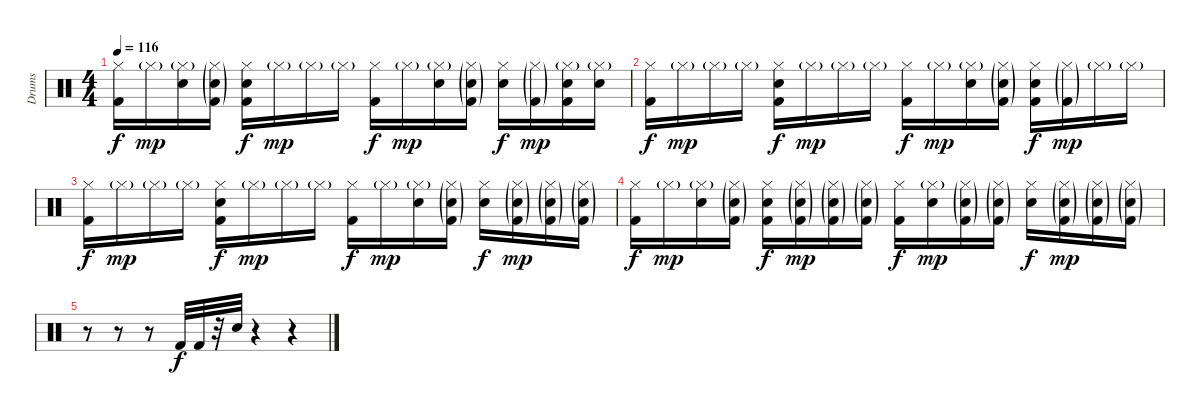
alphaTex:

\track ("Drums" "Drums") {instrument percussion}
\staff {score}
\articulation defaults
\ts (4 4)
\tempo 116
\clef neutral
\ks c
("Hi-Hat (closed)" "Kick (hit) 2").16{dy f} "Hi-Hat (closed)"{g}.16{dy mp} ("Hi-Hat (closed)"{g} "Snare (hit) 2").16 ("Hi-Hat (closed)"{g} "Snare (hit) 2"{g} "Kick (hit) 2"{g}).16 ("Hi-Hat (closed)" "Snare (hit) 2" "Kick (hit) 2").16{dy f} "Hi-Hat (closed)"{g}.16{dy mp} "Hi-Hat (closed)"{g}.16 "Hi-Hat (closed)"{g}.16 ("Hi-Hat (closed)" "Kick (hit) 2").16{dy f} "Hi-Hat (closed)"{g}.16{dy mp} ("Hi-Hat (closed)"{g} "Snare (hit) 2").16 ("Hi-Hat (closed)"{g} "Snare (hit) 2"{g} "Kick (hit) 2"{g}).16 ("Hi-Hat (closed)" "Snare (hit) 2").16{dy f} ("Hi-Hat (closed)"{g} "Kick (hit) 2"{g}).16{dy mp} ("Hi-Hat (closed)"{g} "Snare (hit) 2" "Kick (hit) 2").16 ("Hi-Hat (closed)"{g} "Snare (hit) 2").16 |
("Hi-Hat (closed)" "Kick (hit) 2").16{dy f} "Hi-Hat (closed)"{g}.16{dy mp} "Hi-Hat (closed)"{g}.16 "Hi-Hat (closed)"{g}.16 ("Hi-Hat (closed)" "Snare (hit) 2" "Kick (hit) 2").16{dy f} "Hi-Hat (closed)"{g}.16{dy mp} "Hi-Hat (closed)"{g}.16 "Hi-Hat (closed)"{g}.16 ("Hi-Hat (closed)" "Kick (hit) 2").16{dy f} "Hi-Hat (closed)"{g}.16{dy mp} ("Hi-Hat (closed)"{g} "Snare (hit) 2").16 ("Hi-Hat (closed)"{g} "Snare (hit) 2"{g} "Kick (hit) 2"{g}).16 ("Hi-Hat (closed)" "Snare (hit) 2" "Kick (hit) 2").16{dy f} ("Hi-Hat (closed)"{g} "Kick (hit) 2"{g}).16{dy mp} "Hi-Hat (closed)"{g}.16 "Hi-Hat (closed)"{g}.16 |
("Hi-Hat (closed)" "Kick (hit) 2").16{dy f} "Hi-Hat (closed)"{g}.16{dy mp} "Hi-Hat (closed)"{g}.16 "Hi-Hat (closed)"{g}.16 ("Hi-Hat (closed)" "Snare (hit) 2" "Kick (hit) 2").16{dy f} "Hi-Hat (closed)"{g}.16{dy mp} "Hi-Hat (closed)"{g}.16 "Hi-Hat (closed)"{g}.16 ("Hi-Hat (closed)" "Kick (hit) 2").16{dy f} "Hi-Hat (closed)"{g}.16{dy mp} ("Hi-Hat (closed)"{g} "Snare (hit) 2").16 ("Hi-Hat (closed)"{g} "Snare (hit) 2"{g} "Kick (hit) 2"{g}).16 ("Hi-Hat (closed)" "Snare (hit) 2").16{dy f} ("Hi-Hat (closed)"{g} "Snare (hit) 2"{g} "Kick (hit) 2"{g}).16{dy mp} ("Hi-Hat (closed)"{g} "Snare (hit) 2"{g} "Kick (hit) 2"{g}).16 ("Hi-Hat (closed)"{g} "Snare (hit) 2"{g} "Kick (hit) 2"{g}).16 |
("Hi-Hat (closed)" "Kick (hit) 2").16{dy f} "Hi-Hat (closed)"{g}.16{dy mp} ("Hi-Hat (closed)"{g} "Snare (hit) 2").16 ("Hi-Hat (closed)"{g} "Snare (hit) 2"{g} "Kick (hit) 2"{g}).16 ("Hi-Hat (closed)" "Snare (hit) 2" "Kick (hit) 2").16{dy f} ("Hi-Hat (closed)"{g} "Snare (hit) 2"{g} "Kick (hit) 2"{g}).16{dy mp} ("Hi-Hat (closed)"{g} "Snare (hit) 2"{g} "Kick (hit) 2"{g}).16 ("Hi-Hat (closed)"{g} "Snare (hit) 2"{g} "Kick (hit) 2"{g}).16 ("Hi-Hat (closed)" "Kick (hit) 2").16{dy f} ("Hi-Hat (closed)"{g} "Snare (hit) 2").16{dy mp} ("Hi-Hat (closed)"{g} "Snare (hit) 2"{g} "Kick (hit) 2"{g}).16 ("Hi-Hat (closed)"{g} "Snare (hit) 2"{g} "Kick (hit) 2"{g}).16 ("Hi-Hat (closed)" "Snare (hit) 2").16{dy f} ("Hi-Hat (closed)"{g} "Snare (hit) 2"{g} "Kick (hit) 2"{g}).16{dy mp} ("Hi-Hat (closed)"{g} "Snare (hit) 2"{g} "Kick (hit) 2"{g}).16 ("Hi-Hat (closed)"{g} "Snare (hit) 2"{g} "Kick (hit) 2"{g}).16 |
r.8 r.8 r.8 "Kick (hit) 2".32{dy f} "Kick (hit) 2".32 r.32 "Snare (hit) 2".32 r.4 r.4
